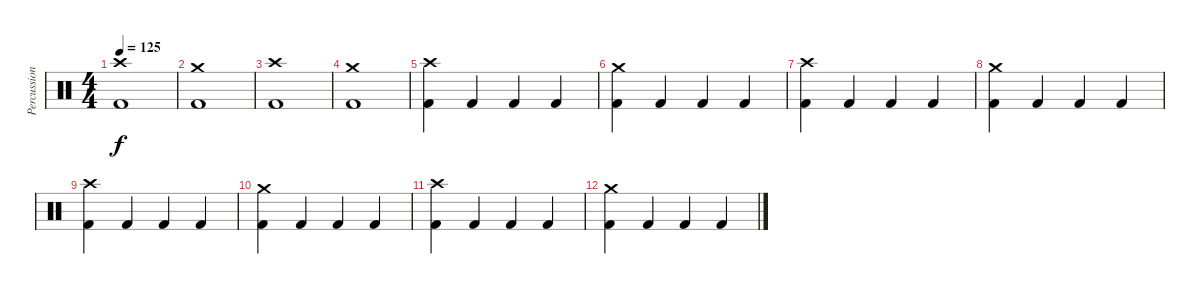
\track ("Percussion" "Percussion") {instrument percussion}
\staff {score}
\articulation defaults
\ts (4 4)
\tempo 125
\clef neutral
\ks c
("Crash high (hit)" "Kick (hit) 2").1{dy f} |
("Crash medium (hit)" "Kick (hit) 2").1 |
("Crash high (hit)" "Kick (hit) 2").1 |
("Crash medium (hit)" "Kick (hit) 2").1 |
("Crash high (hit)" "Kick (hit) 2").4 "Kick (hit) 2".4 "Kick (hit) 2".4 "Kick (hit) 2".4 |
("Crash medium (hit)" "Kick (hit) 2").4 "Kick (hit) 2".4 "Kick (hit) 2".4 "Kick (hit) 2".4 |
("Crash high (hit)" "Kick (hit) 2").4 "Kick (hit) 2".4 "Kick (hit) 2".4 "Kick (hit) 2".4 |
("Crash medium (hit)" "Kick (hit) 2").4 "Kick (hit) 2".4 "Kick (hit) 2".4 "Kick (hit) 2".4 |
("Crash high (hit)" "Kick (hit) 2").4 "Kick (hit) 2".4 "Kick (hit) 2".4 "Kick (hit) 2".4 |
("Crash medium (hit)" "Kick (hit) 2").4 "Kick (hit) 2".4 "Kick (hit) 2".4 "Kick (hit) 2".4 |
("Crash high (hit)" "Kick (hit) 2").4 "Kick (hit) 2".4 "Kick (hit) 2".4 "Kick (hit) 2".4 |
("Crash medium (hit)" "Kick (hit) 2").4 "Kick (hit) 2".4 "Kick (hit) 2".4 "Kick (hit) 2".4
